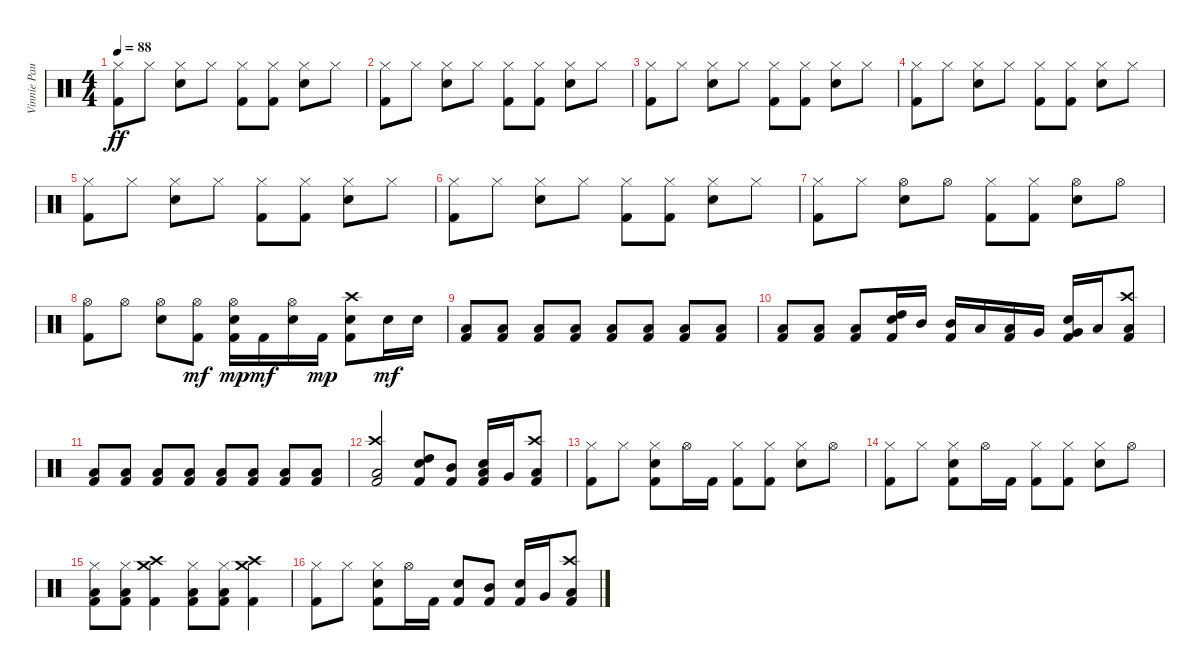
\track ("Vinnie Paul" "Vinnie Pau") {instrument percussion}
\staff {score}
\articulation defaults
\ts (4 4)
\tempo 88
\clef neutral
\ks c
("Hi-Hat (closed)" "Kick (hit) 2").8{dy ff} "Hi-Hat (closed)".8 ("Hi-Hat (closed)" "Electric Snare (hit)").8 "Hi-Hat (closed)".8 ("Hi-Hat (closed)" "Kick (hit) 2").8 ("Hi-Hat (closed)" "Kick (hit) 2").8 ("Hi-Hat (closed)" "Electric Snare (hit)").8 "Hi-Hat (closed)".8 |
("Hi-Hat (closed)" "Kick (hit) 2").8 "Hi-Hat (closed)".8 ("Hi-Hat (closed)" "Electric Snare (hit)").8 "Hi-Hat (closed)".8 ("Hi-Hat (closed)" "Kick (hit) 2").8 ("Hi-Hat (closed)" "Kick (hit) 2").8 ("Hi-Hat (closed)" "Electric Snare (hit)").8 "Hi-Hat (closed)".8 |
("Hi-Hat (closed)" "Kick (hit) 2").8 "Hi-Hat (closed)".8 ("Hi-Hat (closed)" "Electric Snare (hit)").8 "Hi-Hat (closed)".8 ("Hi-Hat (closed)" "Kick (hit) 2").8 ("Hi-Hat (closed)" "Kick (hit) 2").8 ("Hi-Hat (closed)" "Electric Snare (hit)").8 "Hi-Hat (closed)".8 |
("Hi-Hat (closed)" "Kick (hit) 2").8 "Hi-Hat (closed)".8 ("Hi-Hat (closed)" "Electric Snare (hit)").8 "Hi-Hat (closed)".8 ("Hi-Hat (closed)" "Kick (hit) 2").8 ("Hi-Hat (closed)" "Kick (hit) 2").8 ("Hi-Hat (closed)" "Electric Snare (hit)").8 "Hi-Hat (closed)".8 |
("Hi-Hat (closed)" "Kick (hit) 2").8 "Hi-Hat (closed)".8 ("Hi-Hat (closed)" "Electric Snare (hit)").8 "Hi-Hat (closed)".8 ("Hi-Hat (closed)" "Kick (hit) 2").8 ("Hi-Hat (closed)" "Kick (hit) 2").8 ("Hi-Hat (closed)" "Electric Snare (hit)").8 "Hi-Hat (closed)".8 |
("Hi-Hat (closed)" "Kick (hit) 2").8 "Hi-Hat (closed)".8 ("Hi-Hat (closed)" "Electric Snare (hit)").8 "Hi-Hat (closed)".8 ("Hi-Hat (closed)" "Kick (hit) 2").8 ("Hi-Hat (closed)" "Kick (hit) 2").8 ("Hi-Hat (closed)" "Electric Snare (hit)").8 "Hi-Hat (closed)".8 |
("Hi-Hat (closed)" "Kick (hit) 2").8 "Hi-Hat (closed)".8 ("Hi-Hat (open)" "Electric Snare (hit)").8 "Hi-Hat (open)".8 ("Hi-Hat (closed)" "Kick (hit) 2").8 ("Hi-Hat (closed)" "Kick (hit) 2").8 ("Hi-Hat (open)" "Electric Snare (hit)").8 "Hi-Hat (open)".8 |
("Hi-Hat (open)" "Kick (hit) 2").8 "Hi-Hat (open)".8 ("Hi-Hat (open)" "Electric Snare (hit)").8 ("Hi-Hat (open)" "Kick (hit) 2").8{dy mf} ("Hi-Hat (open)" "Electric Snare (hit)" "Kick (hit) 2").16{dy mp} "Kick (hit) 2".16{dy mf} ("Hi-Hat (open)" "Electric Snare (hit)").16 "Kick (hit) 2".16{dy mp} ("Crash high (hit)" "Electric Snare (hit)" "Kick (hit) 2").8 "Electric Snare (hit)".16{dy mf} "Electric Snare (hit)".16 |
("Low Floor Tom (hit)" "Kick (hit) 2").8 ("Low Floor Tom (hit)" "Kick (hit) 2").8 ("Low Floor Tom (hit)" "Kick (hit) 2").8 ("Low Floor Tom (hit)" "Kick (hit) 2").8 ("Low Floor Tom (hit)" "Kick (hit) 2").8 ("Low Floor Tom (hit)" "Kick (hit) 2").8 ("Low Floor Tom (hit)" "Kick (hit) 2").8 ("Low Floor Tom (hit)" "Kick (hit) 2").8 |
("Low Floor Tom (hit)" "Kick (hit) 2").8 ("Low Floor Tom (hit)" "Kick (hit) 2").8 ("Low Floor Tom (hit)" "Kick (hit) 2").8 ("High Tom (hit)" "Snare (hit) 2" "Kick (hit) 2").16 "Mid Tom (hit)".16 ("Mid Tom (hit)" "Kick (hit) 2").16 "Low Tom (hit)".16 ("Low Tom (hit)" "Kick (hit) 2").16 "Very Low Tom (hit)".16 ("Very Low Tom (hit)" "Snare (hit) 2" "Kick (hit) 2").16 "Low Floor Tom (hit)".16 ("Crash high (hit)" "Low Floor Tom (hit)" "Kick (hit) 2").8 |
("Low Floor Tom (hit)" "Kick (hit) 2").8 ("Low Floor Tom (hit)" "Kick (hit) 2").8 ("Low Floor Tom (hit)" "Kick (hit) 2").8 ("Low Floor Tom (hit)" "Kick (hit) 2").8 ("Low Floor Tom (hit)" "Kick (hit) 2").8 ("Low Floor Tom (hit)" "Kick (hit) 2").8 ("Low Floor Tom (hit)" "Kick (hit) 2").8 ("Low Floor Tom (hit)" "Kick (hit) 2").8 |
("Crash high (hit)" "Low Floor Tom (hit)" "Kick (hit) 2").2 ("High Tom (hit)" "Snare (hit) 2" "Kick (hit) 2").8 ("Mid Tom (hit)" "Kick (hit) 2").8 ("Low Tom (hit)" "Snare (hit) 2" "Kick (hit) 2").16 "Very Low Tom (hit)".16 ("Crash high (hit)" "Low Floor Tom (hit)" "Kick (hit) 2").8 |
("Hi-Hat (closed)" "Kick (hit) 2").8 "Hi-Hat (closed)".8 ("Hi-Hat (closed)" "Snare (hit) 2" "Kick (hit) 2").8 "Hi-Hat (open)".16 "Kick (hit) 2".16 ("Hi-Hat (closed)" "Kick (hit) 2").8 ("Hi-Hat (closed)" "Kick (hit) 2").8 ("Hi-Hat (closed)" "Snare (hit) 2").8 "Hi-Hat (open)".8 |
("Hi-Hat (closed)" "Kick (hit) 2").8 "Hi-Hat (closed)".8 ("Hi-Hat (closed)" "Snare (hit) 2" "Kick (hit) 2").8 "Hi-Hat (open)".16 "Kick (hit) 2".16 ("Hi-Hat (closed)" "Kick (hit) 2").8 ("Hi-Hat (closed)" "Kick (hit) 2").8 ("Hi-Hat (closed)" "Snare (hit) 2").8 "Hi-Hat (open)".8 |
("Hi-Hat (closed)" "Low Floor Tom (hit)" "Kick (hit) 2").8 ("Hi-Hat (closed)" "Low Floor Tom (hit)" "Kick (hit) 2").8 ("Crash high (hit)" "Crash medium (hit)" "Kick (hit) 2").4 ("Hi-Hat (closed)" "Low Floor Tom (hit)" "Kick (hit) 2").8 ("Hi-Hat (closed)" "Low Floor Tom (hit)" "Kick (hit) 2").8 ("Crash high (hit)" "Crash medium (hit)" "Kick (hit) 2").4 |
("Hi-Hat (closed)" "Kick (hit) 2").8 "Hi-Hat (closed)".8 ("Hi-Hat (closed)" "Snare (hit) 2" "Kick (hit) 2").8 "Hi-Hat (open)".16 "Kick (hit) 2".16 ("Snare (hit) 2" "Kick (hit) 2").8 ("Mid Tom (hit)" "Kick (hit) 2").8 ("Snare (hit) 2" "Kick (hit) 2").16 "Very Low Tom (hit)".16 ("Crash high (hit)" "Low Floor Tom (hit)" "Kick (hit) 2").8
